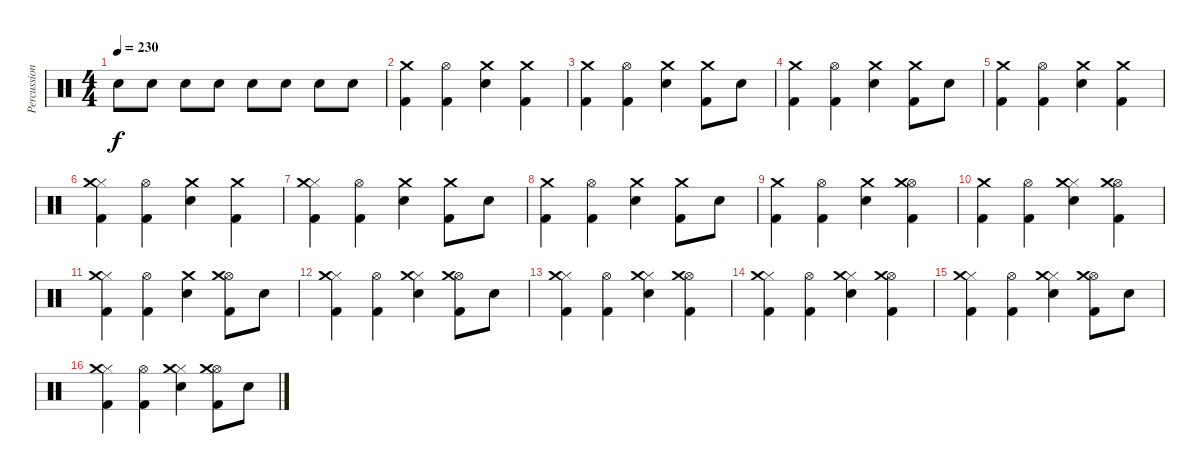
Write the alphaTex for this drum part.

\track ("Percussion" "Percussion") {instrument percussion}
\staff {score}
\articulation defaults
\ts (4 4)
\tempo 230
\clef neutral
\ks c "Electric Snare (hit)".8{dy f} "Electric Snare (hit)".8 "Electric Snare (hit)".8 "Electric Snare (hit)".8 "Electric Snare (hit)".8 "Electric Snare (hit)".8 "Electric Snare (hit)".8 "Electric Snare (hit)".8
|
("Crash medium (hit)" "Kick (hit) 2").4 ("Hi-Hat (open)" "Kick (hit) 2").4 ("Crash medium (hit)" "Electric Snare (hit)").4 ("Crash medium (hit)" "Kick (hit) 2").4 |
("Crash medium (hit)" "Kick (hit) 2").4 ("Hi-Hat (open)" "Kick (hit) 2").4 ("Crash medium (hit)" "Electric Snare (hit)").4 ("Crash medium (hit)" "Kick (hit) 2").8 "Electric Snare (hit)".8 |
("Crash medium (hit)" "Kick (hit) 2").4 ("Hi-Hat (open)" "Kick (hit) 2").4 ("Crash medium (hit)" "Electric Snare (hit)").4 ("Crash medium (hit)" "Kick (hit) 2").8 "Electric Snare (hit)".8 |
("Crash medium (hit)" "Kick (hit) 2").4 ("Hi-Hat (open)" "Kick (hit) 2").4 ("Crash medium (hit)" "Electric Snare (hit)").4 ("Crash medium (hit)" "Kick (hit) 2").4 |
("Hi-Hat (closed)" "Crash medium (hit)" "Kick (hit) 2").4 ("Hi-Hat (open)" "Kick (hit) 2").4 ("Crash medium (hit)" "Electric Snare (hit)").4 ("Crash medium (hit)" "Kick (hit) 2").4 |
("Hi-Hat (closed)" "Crash medium (hit)" "Kick (hit) 2").4 ("Hi-Hat (open)" "Kick (hit) 2").4 ("Crash medium (hit)" "Electric Snare (hit)").4 ("Crash medium (hit)" "Kick (hit) 2").8 "Electric Snare (hit)".8 |
("Crash medium (hit)" "Kick (hit) 2").4 ("Hi-Hat (open)" "Kick (hit) 2").4 ("Crash medium (hit)" "Electric Snare (hit)").4 ("Crash medium (hit)" "Kick (hit) 2").8 "Electric Snare (hit)".8 |
("Crash medium (hit)" "Kick (hit) 2").4 ("Hi-Hat (open)" "Kick (hit) 2").4 ("Crash medium (hit)" "Electric Snare (hit)").4 ("Hi-Hat (open)" "Crash medium (hit)" "Kick (hit) 2").4 |
("Crash medium (hit)" "Kick (hit) 2").4 ("Hi-Hat (open)" "Kick (hit) 2").4 ("Hi-Hat (closed)" "Crash medium (hit)" "Electric Snare (hit)").4 ("Hi-Hat (open)" "Crash medium (hit)" "Kick (hit) 2").4 |
("Hi-Hat (closed)" "Crash medium (hit)" "Kick (hit) 2").4 ("Hi-Hat (open)" "Kick (hit) 2").4 ("Crash medium (hit)" "Electric Snare (hit)").4 ("Hi-Hat (open)" "Crash medium (hit)" "Kick (hit) 2").8 "Electric Snare (hit)".8 |
("Hi-Hat (closed)" "Crash medium (hit)" "Kick (hit) 2").4 ("Hi-Hat (open)" "Kick (hit) 2").4 ("Hi-Hat (closed)" "Crash medium (hit)" "Electric Snare (hit)").4 ("Hi-Hat (open)" "Crash medium (hit)" "Kick (hit) 2").8 "Electric Snare (hit)".8 |
("Hi-Hat (closed)" "Crash medium (hit)" "Kick (hit) 2").4 ("Hi-Hat (open)" "Kick (hit) 2").4 ("Hi-Hat (closed)" "Crash medium (hit)" "Electric Snare (hit)").4 ("Hi-Hat (open)" "Crash medium (hit)" "Kick (hit) 2").4 |
("Hi-Hat (closed)" "Crash medium (hit)" "Kick (hit) 2").4 ("Hi-Hat (open)" "Kick (hit) 2").4 ("Hi-Hat (closed)" "Crash medium (hit)" "Electric Snare (hit)").4 ("Hi-Hat (open)" "Crash medium (hit)" "Kick (hit) 2").4 |
("Hi-Hat (closed)" "Crash medium (hit)" "Kick (hit) 2").4 ("Hi-Hat (open)" "Kick (hit) 2").4 ("Hi-Hat (closed)" "Crash medium (hit)" "Electric Snare (hit)").4 ("Hi-Hat (open)" "Crash medium (hit)" "Kick (hit) 2").8 "Electric Snare (hit)".8 |
("Hi-Hat (closed)" "Crash medium (hit)" "Kick (hit) 2").4 ("Hi-Hat (open)" "Kick (hit) 2").4 ("Hi-Hat (closed)" "Crash medium (hit)" "Electric Snare (hit)").4 ("Hi-Hat (open)" "Crash medium (hit)" "Kick (hit) 2").8 "Electric Snare (hit)".8
